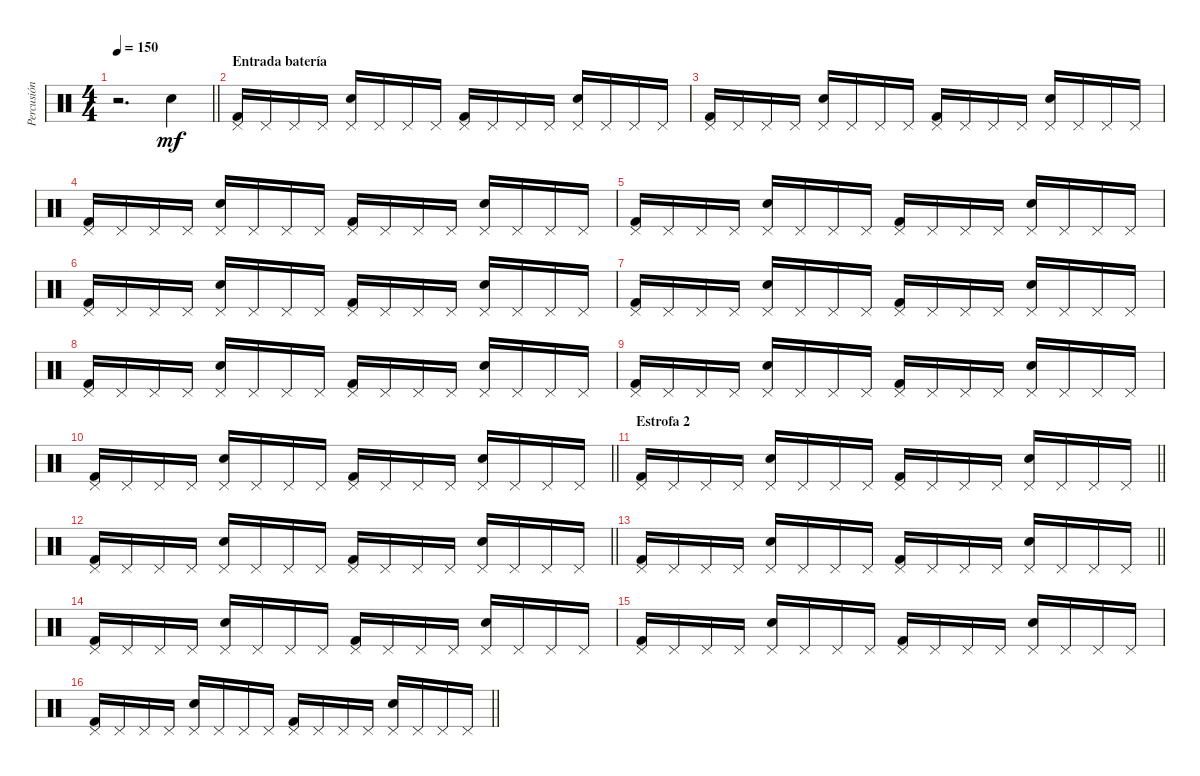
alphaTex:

\track ("Percusión" "Percusión") {instrument percussion}
\staff {score}
\articulation defaults
\ts (4 4)
\tempo 150
\clef neutral
\barLineRight lightlight
\ks c
r.2{d dy mf} "Electric Snare (hit)".4 |
\section ("" "Entrada batería")
("Pedal Hi-Hat (hit)" "Kick (hit) 2").16 "Pedal Hi-Hat (hit)".16 "Pedal Hi-Hat (hit)".16 "Pedal Hi-Hat (hit)".16 ("Pedal Hi-Hat (hit)" "Electric Snare (hit)").16 "Pedal Hi-Hat (hit)".16 "Pedal Hi-Hat (hit)".16 "Pedal Hi-Hat (hit)".16 ("Pedal Hi-Hat (hit)" "Kick (hit) 2").16 "Pedal Hi-Hat (hit)".16 "Pedal Hi-Hat (hit)".16 "Pedal Hi-Hat (hit)".16 ("Pedal Hi-Hat (hit)" "Electric Snare (hit)").16 "Pedal Hi-Hat (hit)".16 "Pedal Hi-Hat (hit)".16 "Pedal Hi-Hat (hit)".16 |
("Pedal Hi-Hat (hit)" "Kick (hit) 2").16 "Pedal Hi-Hat (hit)".16 "Pedal Hi-Hat (hit)".16 "Pedal Hi-Hat (hit)".16 ("Pedal Hi-Hat (hit)" "Electric Snare (hit)").16 "Pedal Hi-Hat (hit)".16 "Pedal Hi-Hat (hit)".16 "Pedal Hi-Hat (hit)".16 ("Pedal Hi-Hat (hit)" "Kick (hit) 2").16 "Pedal Hi-Hat (hit)".16 "Pedal Hi-Hat (hit)".16 "Pedal Hi-Hat (hit)".16 ("Pedal Hi-Hat (hit)" "Electric Snare (hit)").16 "Pedal Hi-Hat (hit)".16 "Pedal Hi-Hat (hit)".16 "Pedal Hi-Hat (hit)".16 |
("Pedal Hi-Hat (hit)" "Kick (hit) 2").16 "Pedal Hi-Hat (hit)".16 "Pedal Hi-Hat (hit)".16 "Pedal Hi-Hat (hit)".16 ("Pedal Hi-Hat (hit)" "Electric Snare (hit)").16 "Pedal Hi-Hat (hit)".16 "Pedal Hi-Hat (hit)".16 "Pedal Hi-Hat (hit)".16 ("Pedal Hi-Hat (hit)" "Kick (hit) 2").16 "Pedal Hi-Hat (hit)".16 "Pedal Hi-Hat (hit)".16 "Pedal Hi-Hat (hit)".16 ("Pedal Hi-Hat (hit)" "Electric Snare (hit)").16 "Pedal Hi-Hat (hit)".16 "Pedal Hi-Hat (hit)".16 "Pedal Hi-Hat (hit)".16 |
("Pedal Hi-Hat (hit)" "Kick (hit) 2").16 "Pedal Hi-Hat (hit)".16 "Pedal Hi-Hat (hit)".16 "Pedal Hi-Hat (hit)".16 ("Pedal Hi-Hat (hit)" "Electric Snare (hit)").16 "Pedal Hi-Hat (hit)".16 "Pedal Hi-Hat (hit)".16 "Pedal Hi-Hat (hit)".16 ("Pedal Hi-Hat (hit)" "Kick (hit) 2").16 "Pedal Hi-Hat (hit)".16 "Pedal Hi-Hat (hit)".16 "Pedal Hi-Hat (hit)".16 ("Pedal Hi-Hat (hit)" "Electric Snare (hit)").16 "Pedal Hi-Hat (hit)".16 "Pedal Hi-Hat (hit)".16 "Pedal Hi-Hat (hit)".16 |
("Pedal Hi-Hat (hit)" "Kick (hit) 2").16 "Pedal Hi-Hat (hit)".16 "Pedal Hi-Hat (hit)".16 "Pedal Hi-Hat (hit)".16 ("Pedal Hi-Hat (hit)" "Electric Snare (hit)").16 "Pedal Hi-Hat (hit)".16 "Pedal Hi-Hat (hit)".16 "Pedal Hi-Hat (hit)".16 ("Pedal Hi-Hat (hit)" "Kick (hit) 2").16 "Pedal Hi-Hat (hit)".16 "Pedal Hi-Hat (hit)".16 "Pedal Hi-Hat (hit)".16 ("Pedal Hi-Hat (hit)" "Electric Snare (hit)").16 "Pedal Hi-Hat (hit)".16 "Pedal Hi-Hat (hit)".16 "Pedal Hi-Hat (hit)".16 |
("Pedal Hi-Hat (hit)" "Kick (hit) 2").16 "Pedal Hi-Hat (hit)".16 "Pedal Hi-Hat (hit)".16 "Pedal Hi-Hat (hit)".16 ("Pedal Hi-Hat (hit)" "Electric Snare (hit)").16 "Pedal Hi-Hat (hit)".16 "Pedal Hi-Hat (hit)".16 "Pedal Hi-Hat (hit)".16 ("Pedal Hi-Hat (hit)" "Kick (hit) 2").16 "Pedal Hi-Hat (hit)".16 "Pedal Hi-Hat (hit)".16 "Pedal Hi-Hat (hit)".16 ("Pedal Hi-Hat (hit)" "Electric Snare (hit)").16 "Pedal Hi-Hat (hit)".16 "Pedal Hi-Hat (hit)".16 "Pedal Hi-Hat (hit)".16 |
("Pedal Hi-Hat (hit)" "Kick (hit) 2").16 "Pedal Hi-Hat (hit)".16 "Pedal Hi-Hat (hit)".16 "Pedal Hi-Hat (hit)".16 ("Pedal Hi-Hat (hit)" "Electric Snare (hit)").16 "Pedal Hi-Hat (hit)".16 "Pedal Hi-Hat (hit)".16 "Pedal Hi-Hat (hit)".16 ("Pedal Hi-Hat (hit)" "Kick (hit) 2").16 "Pedal Hi-Hat (hit)".16 "Pedal Hi-Hat (hit)".16 "Pedal Hi-Hat (hit)".16 ("Pedal Hi-Hat (hit)" "Electric Snare (hit)").16 "Pedal Hi-Hat (hit)".16 "Pedal Hi-Hat (hit)".16 "Pedal Hi-Hat (hit)".16 |
("Pedal Hi-Hat (hit)" "Kick (hit) 2").16 "Pedal Hi-Hat (hit)".16 "Pedal Hi-Hat (hit)".16 "Pedal Hi-Hat (hit)".16 ("Pedal Hi-Hat (hit)" "Electric Snare (hit)").16 "Pedal Hi-Hat (hit)".16 "Pedal Hi-Hat (hit)".16 "Pedal Hi-Hat (hit)".16 ("Pedal Hi-Hat (hit)" "Kick (hit) 2").16 "Pedal Hi-Hat (hit)".16 "Pedal Hi-Hat (hit)".16 "Pedal Hi-Hat (hit)".16 ("Pedal Hi-Hat (hit)" "Electric Snare (hit)").16 "Pedal Hi-Hat (hit)".16 "Pedal Hi-Hat (hit)".16 "Pedal Hi-Hat (hit)".16 |
\barLineRight lightlight
("Pedal Hi-Hat (hit)" "Kick (hit) 2").16 "Pedal Hi-Hat (hit)".16 "Pedal Hi-Hat (hit)".16 "Pedal Hi-Hat (hit)".16 ("Pedal Hi-Hat (hit)" "Electric Snare (hit)").16 "Pedal Hi-Hat (hit)".16 "Pedal Hi-Hat (hit)".16 "Pedal Hi-Hat (hit)".16 ("Pedal Hi-Hat (hit)" "Kick (hit) 2").16 "Pedal Hi-Hat (hit)".16 "Pedal Hi-Hat (hit)".16 "Pedal Hi-Hat (hit)".16 ("Pedal Hi-Hat (hit)" "Electric Snare (hit)").16 "Pedal Hi-Hat (hit)".16 "Pedal Hi-Hat (hit)".16 "Pedal Hi-Hat (hit)".16 |
\section ("" "Estrofa 2")
\barLineRight lightlight
("Pedal Hi-Hat (hit)" "Kick (hit) 2").16 "Pedal Hi-Hat (hit)".16 "Pedal Hi-Hat (hit)".16 "Pedal Hi-Hat (hit)".16 ("Pedal Hi-Hat (hit)" "Electric Snare (hit)").16 "Pedal Hi-Hat (hit)".16 "Pedal Hi-Hat (hit)".16 "Pedal Hi-Hat (hit)".16 ("Pedal Hi-Hat (hit)" "Kick (hit) 2").16 "Pedal Hi-Hat (hit)".16 "Pedal Hi-Hat (hit)".16 "Pedal Hi-Hat (hit)".16 ("Pedal Hi-Hat (hit)" "Electric Snare (hit)").16 "Pedal Hi-Hat (hit)".16 "Pedal Hi-Hat (hit)".16 "Pedal Hi-Hat (hit)".16 |
\section ("" "")
\barLineRight lightlight
("Pedal Hi-Hat (hit)" "Kick (hit) 2").16 "Pedal Hi-Hat (hit)".16 "Pedal Hi-Hat (hit)".16 "Pedal Hi-Hat (hit)".16 ("Pedal Hi-Hat (hit)" "Electric Snare (hit)").16 "Pedal Hi-Hat (hit)".16 "Pedal Hi-Hat (hit)".16 "Pedal Hi-Hat (hit)".16 ("Pedal Hi-Hat (hit)" "Kick (hit) 2").16 "Pedal Hi-Hat (hit)".16 "Pedal Hi-Hat (hit)".16 "Pedal Hi-Hat (hit)".16 ("Pedal Hi-Hat (hit)" "Electric Snare (hit)").16 "Pedal Hi-Hat (hit)".16 "Pedal Hi-Hat (hit)".16 "Pedal Hi-Hat (hit)".16 |
\barLineRight lightlight
("Pedal Hi-Hat (hit)" "Kick (hit) 2").16 "Pedal Hi-Hat (hit)".16 "Pedal Hi-Hat (hit)".16 "Pedal Hi-Hat (hit)".16 ("Pedal Hi-Hat (hit)" "Electric Snare (hit)").16 "Pedal Hi-Hat (hit)".16 "Pedal Hi-Hat (hit)".16 "Pedal Hi-Hat (hit)".16 ("Pedal Hi-Hat (hit)" "Kick (hit) 2").16 "Pedal Hi-Hat (hit)".16 "Pedal Hi-Hat (hit)".16 "Pedal Hi-Hat (hit)".16 ("Pedal Hi-Hat (hit)" "Electric Snare (hit)").16 "Pedal Hi-Hat (hit)".16 "Pedal Hi-Hat (hit)".16 "Pedal Hi-Hat (hit)".16 |
("Pedal Hi-Hat (hit)" "Kick (hit) 2").16 "Pedal Hi-Hat (hit)".16 "Pedal Hi-Hat (hit)".16 "Pedal Hi-Hat (hit)".16 ("Pedal Hi-Hat (hit)" "Electric Snare (hit)").16 "Pedal Hi-Hat (hit)".16 "Pedal Hi-Hat (hit)".16 "Pedal Hi-Hat (hit)".16 ("Pedal Hi-Hat (hit)" "Kick (hit) 2").16 "Pedal Hi-Hat (hit)".16 "Pedal Hi-Hat (hit)".16 "Pedal Hi-Hat (hit)".16 ("Pedal Hi-Hat (hit)" "Electric Snare (hit)").16 "Pedal Hi-Hat (hit)".16 "Pedal Hi-Hat (hit)".16 "Pedal Hi-Hat (hit)".16 |
("Pedal Hi-Hat (hit)" "Kick (hit) 2").16 "Pedal Hi-Hat (hit)".16 "Pedal Hi-Hat (hit)".16 "Pedal Hi-Hat (hit)".16 ("Pedal Hi-Hat (hit)" "Electric Snare (hit)").16 "Pedal Hi-Hat (hit)".16 "Pedal Hi-Hat (hit)".16 "Pedal Hi-Hat (hit)".16 ("Pedal Hi-Hat (hit)" "Kick (hit) 2").16 "Pedal Hi-Hat (hit)".16 "Pedal Hi-Hat (hit)".16 "Pedal Hi-Hat (hit)".16 ("Pedal Hi-Hat (hit)" "Electric Snare (hit)").16 "Pedal Hi-Hat (hit)".16 "Pedal Hi-Hat (hit)".16 "Pedal Hi-Hat (hit)".16 |
\barLineRight lightlight
("Pedal Hi-Hat (hit)" "Kick (hit) 2").16 "Pedal Hi-Hat (hit)".16 "Pedal Hi-Hat (hit)".16 "Pedal Hi-Hat (hit)".16 ("Pedal Hi-Hat (hit)" "Electric Snare (hit)").16 "Pedal Hi-Hat (hit)".16 "Pedal Hi-Hat (hit)".16 "Pedal Hi-Hat (hit)".16 ("Pedal Hi-Hat (hit)" "Kick (hit) 2").16 "Pedal Hi-Hat (hit)".16 "Pedal Hi-Hat (hit)".16 "Pedal Hi-Hat (hit)".16 ("Pedal Hi-Hat (hit)" "Electric Snare (hit)").16 "Pedal Hi-Hat (hit)".16 "Pedal Hi-Hat (hit)".16 "Pedal Hi-Hat (hit)".16
